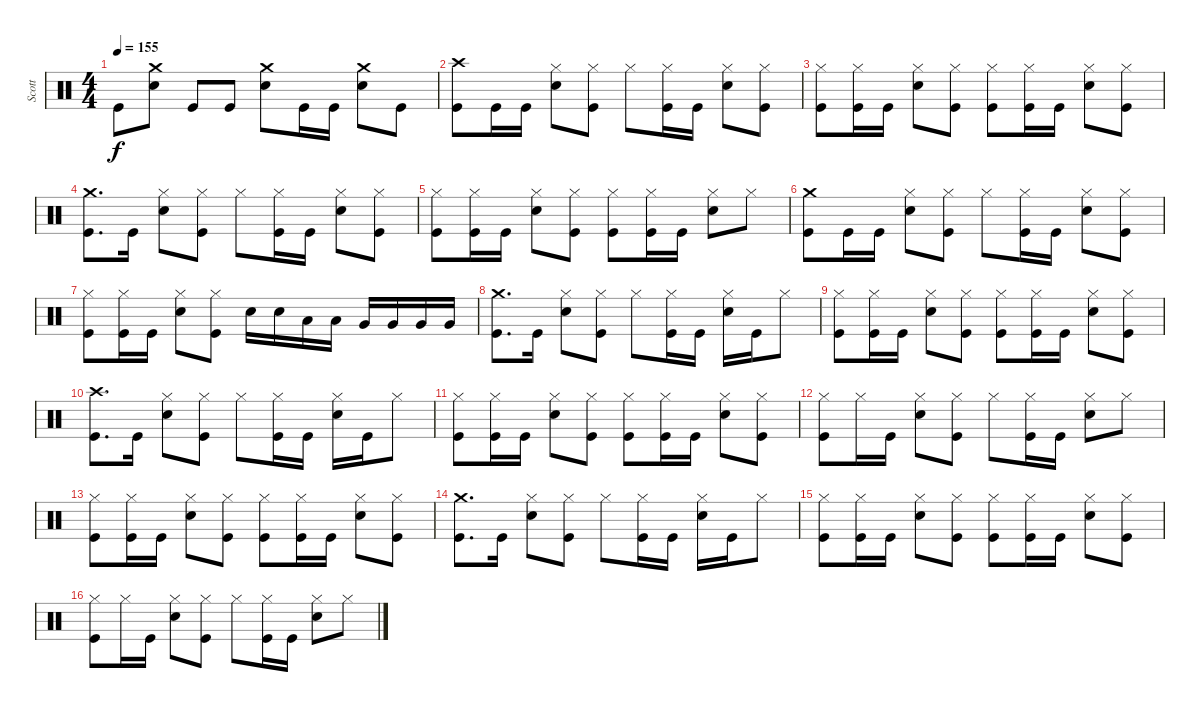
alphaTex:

\track ("Scott" "Scott") {instrument percussion}
\staff {score}
\articulation defaults
\ts (4 4)
\tempo 155
\clef neutral
\ks c "Kick (hit)".8{dy f}
("Snare (hit) 2" "Crash medium (hit)").8 "Kick (hit)".8 "Kick (hit)".8 ("Snare (hit) 2" "Crash medium (hit)").8 "Kick (hit)".16 "Kick (hit)".16 ("Snare (hit) 2" "Crash medium (hit)").8 "Kick (hit)".8 |
("Kick (hit)" "Crash high (hit)").8 "Kick (hit)".16 "Kick (hit)".16 ("Snare (hit) 2" "Hi-Hat (closed)").8 ("Kick (hit)" "Hi-Hat (closed)").8 "Hi-Hat (closed)".8 ("Kick (hit)" "Hi-Hat (closed)").16 "Kick (hit)".16 ("Snare (hit) 2" "Hi-Hat (closed)").8 ("Kick (hit)" "Hi-Hat (closed)").8 |
("Kick (hit)" "Hi-Hat (closed)").8 ("Kick (hit)" "Hi-Hat (closed)").16 "Kick (hit)".16 ("Snare (hit) 2" "Hi-Hat (closed)").8 ("Kick (hit)" "Hi-Hat (closed)").8 ("Kick (hit)" "Hi-Hat (closed)").8 ("Kick (hit)" "Hi-Hat (closed)").16 "Kick (hit)".16 ("Snare (hit) 2" "Hi-Hat (closed)").8 ("Kick (hit)" "Hi-Hat (closed)").8 |
("Kick (hit)" "Crash medium (hit)").8{d} "Kick (hit)".16 ("Snare (hit) 2" "Hi-Hat (closed)").8 ("Kick (hit)" "Hi-Hat (closed)").8 "Hi-Hat (closed)".8 ("Kick (hit)" "Hi-Hat (closed)").16 "Kick (hit)".16 ("Snare (hit) 2" "Hi-Hat (closed)").8 ("Kick (hit)" "Hi-Hat (closed)").8 |
("Kick (hit)" "Hi-Hat (closed)").8 ("Kick (hit)" "Hi-Hat (closed)").16 "Kick (hit)".16 ("Snare (hit) 2" "Hi-Hat (closed)").8 ("Kick (hit)" "Hi-Hat (closed)").8 ("Kick (hit)" "Hi-Hat (closed)").8 ("Kick (hit)" "Hi-Hat (closed)").16 "Kick (hit)".16 ("Snare (hit) 2" "Hi-Hat (closed)").8 "Hi-Hat (closed)".8 |
("Kick (hit)" "Crash medium (hit)").8 "Kick (hit)".16 "Kick (hit)".16 ("Snare (hit) 2" "Hi-Hat (closed)").8 ("Kick (hit)" "Hi-Hat (closed)").8 "Hi-Hat (closed)".8 ("Kick (hit)" "Hi-Hat (closed)").16 "Kick (hit)".16 ("Snare (hit) 2" "Hi-Hat (closed)").8 ("Kick (hit)" "Hi-Hat (closed)").8 |
("Kick (hit)" "Hi-Hat (closed)").8 ("Kick (hit)" "Hi-Hat (closed)").16 "Kick (hit)".16 ("Snare (hit) 2" "Hi-Hat (closed)").8 ("Kick (hit)" "Hi-Hat (closed)").8 "Snare (hit) 2".16 "Snare (hit) 2".16 "Low Tom (hit)".16 "Low Tom (hit)".16 "Very Low Tom (hit)".16 "Very Low Tom (hit)".16 "Very Low Tom (hit)".16 "Very Low Tom (hit)".16 |
("Kick (hit)" "Crash medium (hit)").8{d} "Kick (hit)".16 ("Snare (hit) 2" "Hi-Hat (closed)").8 ("Kick (hit)" "Hi-Hat (closed)").8 "Hi-Hat (closed)".8 ("Kick (hit)" "Hi-Hat (closed)").16 "Kick (hit)".16 ("Snare (hit) 2" "Hi-Hat (closed)").16 "Kick (hit)".16 "Hi-Hat (closed)".8 |
("Kick (hit)" "Hi-Hat (closed)").8 ("Kick (hit)" "Hi-Hat (closed)").16 "Kick (hit)".16 ("Snare (hit) 2" "Hi-Hat (closed)").8 ("Kick (hit)" "Hi-Hat (closed)").8 ("Kick (hit)" "Hi-Hat (closed)").8 ("Kick (hit)" "Hi-Hat (closed)").16 "Kick (hit)".16 ("Snare (hit) 2" "Hi-Hat (closed)").8 ("Kick (hit)" "Hi-Hat (closed)").8 |
("Kick (hit)" "Crash high (hit)").8{d} "Kick (hit)".16 ("Snare (hit) 2" "Hi-Hat (closed)").8 ("Kick (hit)" "Hi-Hat (closed)").8 "Hi-Hat (closed)".8 ("Kick (hit)" "Hi-Hat (closed)").16 "Kick (hit)".16 ("Snare (hit) 2" "Hi-Hat (closed)").16 "Kick (hit)".16 "Hi-Hat (closed)".8 |
("Kick (hit)" "Hi-Hat (closed)").8 ("Kick (hit)" "Hi-Hat (closed)").16 "Kick (hit)".16 ("Snare (hit) 2" "Hi-Hat (closed)").8 ("Kick (hit)" "Hi-Hat (closed)").8 ("Kick (hit)" "Hi-Hat (closed)").8 ("Kick (hit)" "Hi-Hat (closed)").16 "Kick (hit)".16 ("Snare (hit) 2" "Hi-Hat (closed)").8 ("Kick (hit)" "Hi-Hat (closed)").8 |
("Kick (hit)" "Hi-Hat (closed)").8 "Hi-Hat (closed)".16 "Kick (hit)".16 ("Snare (hit) 2" "Hi-Hat (closed)").8 ("Kick (hit)" "Hi-Hat (closed)").8 "Hi-Hat (closed)".8 ("Kick (hit)" "Hi-Hat (closed)").16 "Kick (hit)".16 ("Snare (hit) 2" "Hi-Hat (closed)").8 "Hi-Hat (closed)".8 |
("Kick (hit)" "Hi-Hat (closed)").8 ("Kick (hit)" "Hi-Hat (closed)").16 "Kick (hit)".16 ("Snare (hit) 2" "Hi-Hat (closed)").8 ("Kick (hit)" "Hi-Hat (closed)").8 ("Kick (hit)" "Hi-Hat (closed)").8 ("Kick (hit)" "Hi-Hat (closed)").16 "Kick (hit)".16 ("Snare (hit) 2" "Hi-Hat (closed)").8 ("Kick (hit)" "Hi-Hat (closed)").8 |
("Kick (hit)" "Crash medium (hit)").8{d} "Kick (hit)".16 ("Snare (hit) 2" "Hi-Hat (closed)").8 ("Kick (hit)" "Hi-Hat (closed)").8 "Hi-Hat (closed)".8 ("Kick (hit)" "Hi-Hat (closed)").16 "Kick (hit)".16 ("Snare (hit) 2" "Hi-Hat (closed)").16 "Kick (hit)".16 "Hi-Hat (closed)".8 |
("Kick (hit)" "Hi-Hat (closed)").8 ("Kick (hit)" "Hi-Hat (closed)").16 "Kick (hit)".16 ("Snare (hit) 2" "Hi-Hat (closed)").8 ("Kick (hit)" "Hi-Hat (closed)").8 ("Kick (hit)" "Hi-Hat (closed)").8 ("Kick (hit)" "Hi-Hat (closed)").16 "Kick (hit)".16 ("Snare (hit) 2" "Hi-Hat (closed)").8 ("Kick (hit)" "Hi-Hat (closed)").8 |
("Kick (hit)" "Hi-Hat (closed)").8 "Hi-Hat (closed)".16 "Kick (hit)".16 ("Snare (hit) 2" "Hi-Hat (closed)").8 ("Kick (hit)" "Hi-Hat (closed)").8 "Hi-Hat (closed)".8 ("Kick (hit)" "Hi-Hat (closed)").16 "Kick (hit)".16 ("Snare (hit) 2" "Hi-Hat (closed)").8 "Hi-Hat (closed)".8
